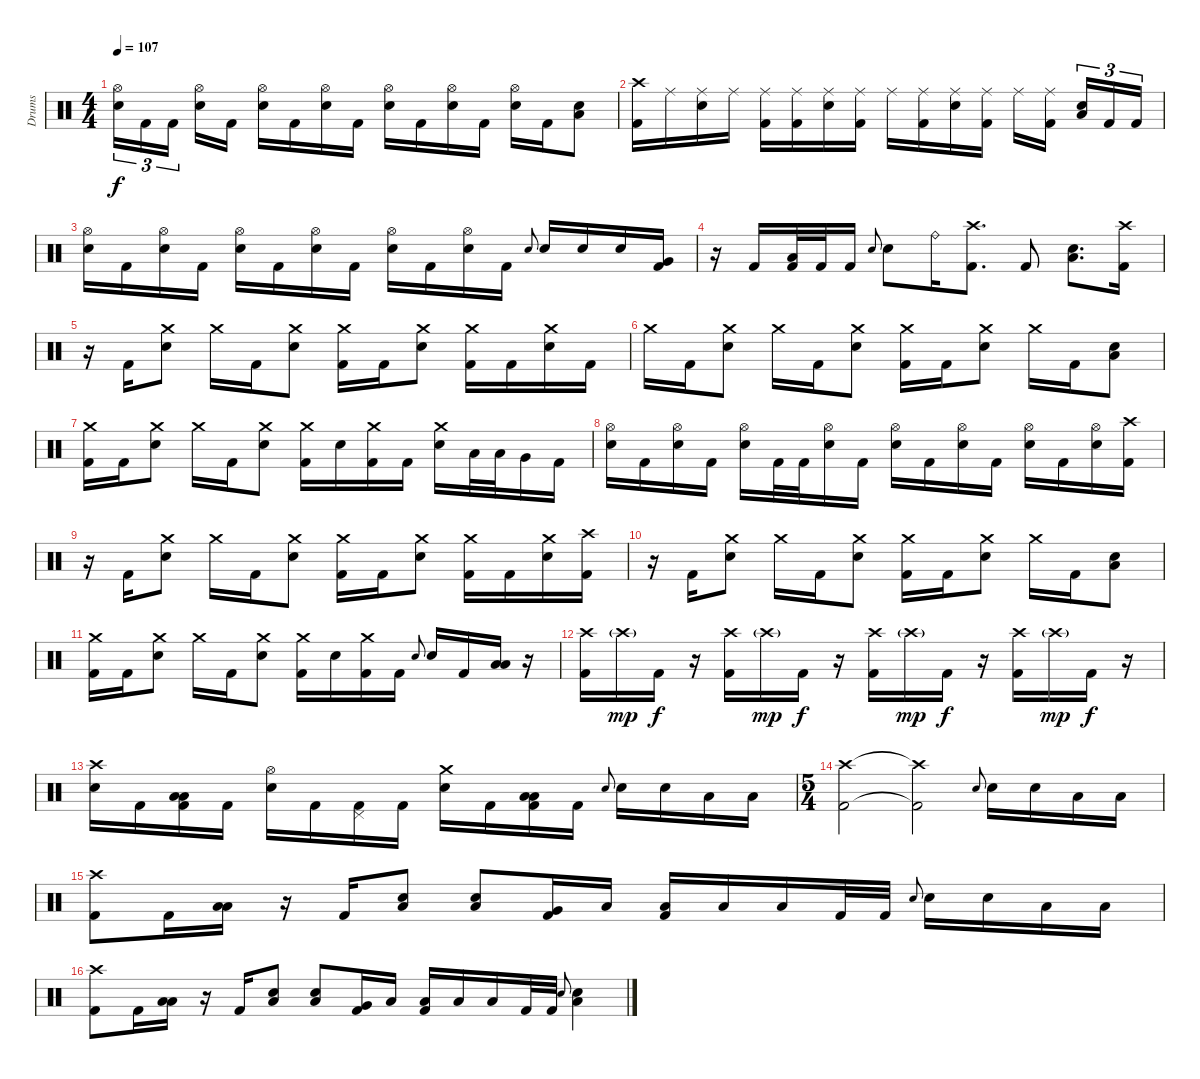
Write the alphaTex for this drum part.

\track ("Drums" "Drums") {instrument percussion}
\staff {score}
\articulation defaults
\ts (4 4)
\tempo 107
\clef neutral
\ks c
("Hi-Hat (open)" "Snare (hit) 2").16{tu (3 2) dy f} "Kick (hit) 2".16{tu (3 2)} "Kick (hit) 2".16{tu (3 2) beam splitsecondary} ("Hi-Hat (open)" "Snare (hit) 2").16 "Kick (hit) 2".16 ("Hi-Hat (open)" "Snare (hit) 2").16 "Kick (hit) 2".16 ("Hi-Hat (open)" "Snare (hit) 2").16 "Kick (hit) 2".16 ("Hi-Hat (open)" "Snare (hit) 2").16 "Kick (hit) 2".16 ("Hi-Hat (open)" "Snare (hit) 2").16 "Kick (hit) 2".16 ("Hi-Hat (open)" "Snare (hit) 2").16 "Kick (hit) 2".16 ("Low Floor Tom (hit)" "Snare (hit) 2").8 |
("Crash high (hit)" "Kick (hit) 2").16 "Ride (middle)".16 ("Ride (middle)" "Snare (hit) 2").16 "Ride (middle)".16 ("Ride (middle)" "Kick (hit) 2").16 ("Ride (middle)" "Kick (hit) 2").16 ("Ride (middle)" "Snare (hit) 2").16 ("Ride (middle)" "Kick (hit) 2").16 "Ride (middle)".16 ("Ride (middle)" "Kick (hit) 2").16 ("Ride (middle)" "Snare (hit) 2").16 ("Ride (middle)" "Kick (hit) 2").16 "Ride (middle)".16 ("Ride (middle)" "Kick (hit) 2").16{beam splitsecondary} ("Low Floor Tom (hit)" "Snare (hit) 2").16{tu (3 2)} "Kick (hit) 2".16{tu (3 2)} "Kick (hit) 2".16{tu (3 2)} |
("Hi-Hat (open)" "Snare (hit) 2").16 "Kick (hit) 2".16 ("Hi-Hat (open)" "Snare (hit) 2").16 "Kick (hit) 2".16 ("Hi-Hat (open)" "Snare (hit) 2").16 "Kick (hit) 2".16 ("Hi-Hat (open)" "Snare (hit) 2").16 "Kick (hit) 2".16 ("Hi-Hat (open)" "Snare (hit) 2").16 "Kick (hit) 2".16 ("Hi-Hat (open)" "Snare (hit) 2").16 "Kick (hit) 2".16 "Snare (hit) 2".8{gr onbeat} "Snare (hit) 2".16 "Snare (hit) 2".16 "Snare (hit) 2".16 ("Very Low Tom (hit)" "Kick (hit) 2").16 |
r.16 "Kick (hit) 2".16 ("Low Floor Tom (hit)" "Kick (hit) 2").32 "Kick (hit) 2".32 "Kick (hit) 2".16 "Snare (hit) 2".8{gr onbeat} "Snare (hit) 2".8 "Ride (bell)".16 ("Crash high (hit)" "Kick (hit) 2").8{d} "Kick (hit) 2".8 ("Low Floor Tom (hit)" "Snare (hit) 2").8{d} ("Crash high (hit)" "Kick (hit) 2").16 |
r.16 "Kick (hit) 2".16 ("Crash medium (hit)" "Snare (hit) 2").8 "Crash medium (hit)".16 "Kick (hit) 2".16 ("Crash medium (hit)" "Snare (hit) 2").8 ("Crash medium (hit)" "Kick (hit) 2").16 "Kick (hit) 2".16 ("Crash medium (hit)" "Snare (hit) 2").8 ("Crash medium (hit)" "Kick (hit) 2").16 "Kick (hit) 2".16 ("Crash medium (hit)" "Snare (hit) 2").16 "Kick (hit) 2".16 |
"Crash medium (hit)".16 "Kick (hit) 2".16 ("Crash medium (hit)" "Snare (hit) 2").8 "Crash medium (hit)".16 "Kick (hit) 2".16 ("Crash medium (hit)" "Snare (hit) 2").8 ("Crash medium (hit)" "Kick (hit) 2").16 "Kick (hit) 2".16 ("Crash medium (hit)" "Snare (hit) 2").8 "Crash medium (hit)".16 "Kick (hit) 2".16 ("Low Floor Tom (hit)" "Snare (hit) 2").8 |
("Crash medium (hit)" "Kick (hit) 2").16 "Kick (hit) 2".16 ("Crash medium (hit)" "Snare (hit) 2").8 "Crash medium (hit)".16 "Kick (hit) 2".16 ("Crash medium (hit)" "Snare (hit) 2").8 ("Crash medium (hit)" "Kick (hit) 2").16 "Snare (hit) 2".16 ("Crash medium (hit)" "Kick (hit) 2").16 "Kick (hit) 2".16 ("Crash medium (hit)" "Snare (hit) 2").16 "Low Tom (hit)".32 "Low Tom (hit)".32 "Very Low Tom (hit)".16 "Kick (hit) 2".16 |
("Hi-Hat (open)" "Snare (hit) 2").16 "Kick (hit) 2".16 ("Hi-Hat (open)" "Snare (hit) 2").16 "Kick (hit) 2".16 ("Hi-Hat (open)" "Snare (hit) 2").16 "Kick (hit) 2".32 "Kick (hit) 2".32 ("Hi-Hat (open)" "Snare (hit) 2").16 "Kick (hit) 2".16 ("Hi-Hat (open)" "Snare (hit) 2").16 "Kick (hit) 2".16 ("Hi-Hat (open)" "Snare (hit) 2").16 "Kick (hit) 2".16 ("Hi-Hat (open)" "Snare (hit) 2").16 "Kick (hit) 2".16 ("Hi-Hat (open)" "Snare (hit) 2").16 ("Crash high (hit)" "Kick (hit) 2").16 |
r.16 "Kick (hit) 2".16 ("Crash medium (hit)" "Snare (hit) 2").8 "Crash medium (hit)".16 "Kick (hit) 2".16 ("Crash medium (hit)" "Snare (hit) 2").8 ("Crash medium (hit)" "Kick (hit) 2").16 "Kick (hit) 2".16 ("Crash medium (hit)" "Snare (hit) 2").8 ("Crash medium (hit)" "Kick (hit) 2").16 "Kick (hit) 2".16 ("Crash medium (hit)" "Snare (hit) 2").16 ("Crash high (hit)" "Kick (hit) 2").16 |
r.16 "Kick (hit) 2".16 ("Crash medium (hit)" "Snare (hit) 2").8 "Crash medium (hit)".16 "Kick (hit) 2".16 ("Crash medium (hit)" "Snare (hit) 2").8 ("Crash medium (hit)" "Kick (hit) 2").16 "Kick (hit) 2".16 ("Crash medium (hit)" "Snare (hit) 2").8 "Crash medium (hit)".16 "Kick (hit) 2".16 ("Low Floor Tom (hit)" "Snare (hit) 2").8 |
("Crash medium (hit)" "Kick (hit) 2").16 "Kick (hit) 2".16 ("Crash medium (hit)" "Snare (hit) 2").8 "Crash medium (hit)".16 "Kick (hit) 2".16 ("Crash medium (hit)" "Snare (hit) 2").8 ("Crash medium (hit)" "Kick (hit) 2").16 "Snare (hit) 2".16 ("Crash medium (hit)" "Kick (hit) 2").16 "Kick (hit) 2".16 "Snare (hit) 2".8{gr onbeat} "Snare (hit) 2".16 "Kick (hit) 2".16 ("Low Tom (hit)" "Low Floor Tom (hit)").16 r.16 |
("Crash high (hit)" "Kick (hit) 2").16 "Crash high (hit)"{g}.16{dy mp volume 0} "Kick (hit) 2".16{dy f volume 13} r.16 ("Crash high (hit)" "Kick (hit) 2").16 "Crash high (hit)"{g}.16{dy mp volume 0} "Kick (hit) 2".16{dy f volume 13} r.16 ("Crash high (hit)" "Kick (hit) 2").16 "Crash high (hit)"{g}.16{dy mp volume 0} "Kick (hit) 2".16{dy f volume 13} r.16 ("Crash high (hit)" "Kick (hit) 2").16 "Crash high (hit)"{g}.16{dy mp volume 0} "Kick (hit) 2".16{dy f volume 13} r.16 |
("Crash high (hit)" "Snare (hit) 2").16 "Kick (hit) 2".16 ("Low Tom (hit)" "Low Floor Tom (hit)" "Kick (hit) 2").16 "Kick (hit) 2".16 ("Hi-Hat (open)" "Snare (hit) 2").16 "Kick (hit) 2".16 ("Pedal Hi-Hat (hit)" "Kick (hit) 2").16 "Kick (hit) 2".16 ("Crash medium (hit)" "Snare (hit) 2").16 "Kick (hit) 2".16 ("Low Tom (hit)" "Low Floor Tom (hit)" "Kick (hit) 2").16 "Kick (hit) 2".16 "Snare (hit) 2".8{gr onbeat} "Snare (hit) 2".16 "Snare (hit) 2".16 "Low Tom (hit)".16 "Low Floor Tom (hit)".16 |
\ts (5 4)
("Crash high (hit)" "Kick (hit) 2").2 ("Crash high (hit)"{t} "Kick (hit) 2"{t}).2 "Snare (hit) 2".8{gr onbeat} "Snare (hit) 2".16 "Snare (hit) 2".16 "Low Tom (hit)".16 "Low Floor Tom (hit)".16 |
("Crash high (hit)" "Kick (hit) 2").8 "Kick (hit) 2".16 ("Low Tom (hit)" "Low Floor Tom (hit)").16 r.16 "Kick (hit) 2".16 ("Low Floor Tom (hit)" "Snare (hit) 2").8 ("Low Floor Tom (hit)" "Snare (hit) 2").8 ("Very Low Tom (hit)" "Kick (hit) 2").16 "Low Floor Tom (hit)".16 ("Low Floor Tom (hit)" "Kick (hit) 2").16 "Low Tom (hit)".16 "Low Floor Tom (hit)".16 "Kick (hit) 2".32 "Kick (hit) 2".32 "Snare (hit) 2".8{gr onbeat} "Snare (hit) 2".16 "Snare (hit) 2".16 "Low Tom (hit)".16 "Low Tom (hit)".16 |
("Crash high (hit)" "Kick (hit) 2").8 "Kick (hit) 2".16 ("Low Tom (hit)" "Low Floor Tom (hit)").16 r.16 "Kick (hit) 2".16 ("Low Floor Tom (hit)" "Snare (hit) 2").8 ("Low Floor Tom (hit)" "Snare (hit) 2").8 ("Very Low Tom (hit)" "Kick (hit) 2").16 "Low Floor Tom (hit)".16 ("Low Floor Tom (hit)" "Kick (hit) 2").16 "Low Tom (hit)".16 "Low Floor Tom (hit)".16 "Kick (hit) 2".32 "Kick (hit) 2".32 "Snare (hit) 2".8{gr onbeat} ("Low Floor Tom (hit)" "Snare (hit) 2").4
